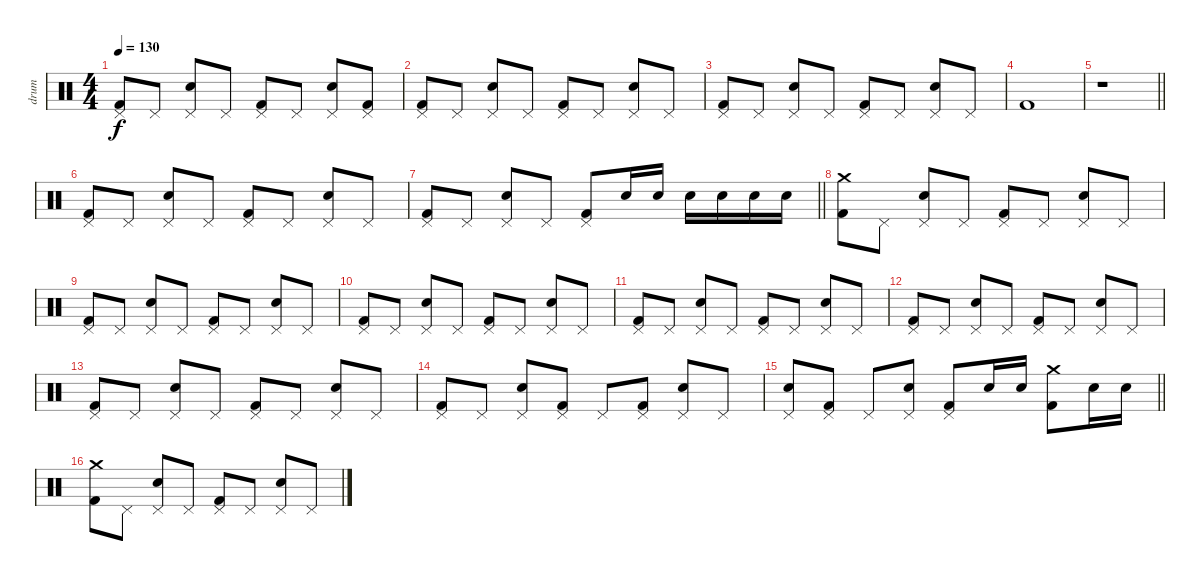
\track ("drum" "drum") {instrument percussion}
\staff {score}
\articulation defaults
\ts (4 4)
\tempo 130
\clef neutral
\ks c
("Pedal Hi-Hat (hit)" "Kick (hit) 2").8{dy f} "Pedal Hi-Hat (hit)".8 ("Pedal Hi-Hat (hit)" "Electric Snare (hit)").8 "Pedal Hi-Hat (hit)".8 ("Pedal Hi-Hat (hit)" "Kick (hit) 2").8 "Pedal Hi-Hat (hit)".8 ("Pedal Hi-Hat (hit)" "Electric Snare (hit)").8 ("Pedal Hi-Hat (hit)" "Kick (hit) 2").8 |
("Pedal Hi-Hat (hit)" "Kick (hit) 2").8 "Pedal Hi-Hat (hit)".8 ("Pedal Hi-Hat (hit)" "Electric Snare (hit)").8 "Pedal Hi-Hat (hit)".8 ("Pedal Hi-Hat (hit)" "Kick (hit) 2").8 "Pedal Hi-Hat (hit)".8 ("Pedal Hi-Hat (hit)" "Electric Snare (hit)").8 "Pedal Hi-Hat (hit)".8 |
("Pedal Hi-Hat (hit)" "Kick (hit) 2").8 "Pedal Hi-Hat (hit)".8 ("Pedal Hi-Hat (hit)" "Electric Snare (hit)").8 "Pedal Hi-Hat (hit)".8 ("Pedal Hi-Hat (hit)" "Kick (hit) 2").8 "Pedal Hi-Hat (hit)".8 ("Pedal Hi-Hat (hit)" "Electric Snare (hit)").8 "Pedal Hi-Hat (hit)".8 |
"Kick (hit) 2".1 |
\barLineRight lightlight
r.1 |
("Pedal Hi-Hat (hit)" "Kick (hit) 2").8 "Pedal Hi-Hat (hit)".8 ("Pedal Hi-Hat (hit)" "Electric Snare (hit)").8 "Pedal Hi-Hat (hit)".8 ("Pedal Hi-Hat (hit)" "Kick (hit) 2").8 "Pedal Hi-Hat (hit)".8 ("Pedal Hi-Hat (hit)" "Electric Snare (hit)").8 "Pedal Hi-Hat (hit)".8 |
\barLineRight lightlight
("Pedal Hi-Hat (hit)" "Kick (hit) 2").8 "Pedal Hi-Hat (hit)".8 ("Pedal Hi-Hat (hit)" "Electric Snare (hit)").8 "Pedal Hi-Hat (hit)".8 ("Pedal Hi-Hat (hit)" "Kick (hit) 2").8 "Electric Snare (hit)".16 "Electric Snare (hit)".16 "Electric Snare (hit)".16 "Electric Snare (hit)".16 "Electric Snare (hit)".16 "Electric Snare (hit)".16 |
("Crash medium (hit)" "Kick (hit) 2").8 "Pedal Hi-Hat (hit)".8 ("Pedal Hi-Hat (hit)" "Electric Snare (hit)").8 "Pedal Hi-Hat (hit)".8 ("Pedal Hi-Hat (hit)" "Kick (hit) 2").8 "Pedal Hi-Hat (hit)".8 ("Pedal Hi-Hat (hit)" "Electric Snare (hit)").8 "Pedal Hi-Hat (hit)".8 |
("Pedal Hi-Hat (hit)" "Kick (hit) 2").8 "Pedal Hi-Hat (hit)".8 ("Pedal Hi-Hat (hit)" "Electric Snare (hit)").8 "Pedal Hi-Hat (hit)".8 ("Pedal Hi-Hat (hit)" "Kick (hit) 2").8 "Pedal Hi-Hat (hit)".8 ("Pedal Hi-Hat (hit)" "Electric Snare (hit)").8 "Pedal Hi-Hat (hit)".8 |
("Pedal Hi-Hat (hit)" "Kick (hit) 2").8 "Pedal Hi-Hat (hit)".8 ("Pedal Hi-Hat (hit)" "Electric Snare (hit)").8 "Pedal Hi-Hat (hit)".8 ("Pedal Hi-Hat (hit)" "Kick (hit) 2").8 "Pedal Hi-Hat (hit)".8 ("Pedal Hi-Hat (hit)" "Electric Snare (hit)").8 "Pedal Hi-Hat (hit)".8 |
("Pedal Hi-Hat (hit)" "Kick (hit) 2").8 "Pedal Hi-Hat (hit)".8 ("Pedal Hi-Hat (hit)" "Electric Snare (hit)").8 "Pedal Hi-Hat (hit)".8 ("Pedal Hi-Hat (hit)" "Kick (hit) 2").8 "Pedal Hi-Hat (hit)".8 ("Pedal Hi-Hat (hit)" "Electric Snare (hit)").8 "Pedal Hi-Hat (hit)".8 |
("Pedal Hi-Hat (hit)" "Kick (hit) 2").8 "Pedal Hi-Hat (hit)".8 ("Pedal Hi-Hat (hit)" "Electric Snare (hit)").8 "Pedal Hi-Hat (hit)".8 ("Pedal Hi-Hat (hit)" "Kick (hit) 2").8 "Pedal Hi-Hat (hit)".8 ("Pedal Hi-Hat (hit)" "Electric Snare (hit)").8 "Pedal Hi-Hat (hit)".8 |
("Pedal Hi-Hat (hit)" "Kick (hit) 2").8 "Pedal Hi-Hat (hit)".8 ("Pedal Hi-Hat (hit)" "Electric Snare (hit)").8 "Pedal Hi-Hat (hit)".8 ("Pedal Hi-Hat (hit)" "Kick (hit) 2").8 "Pedal Hi-Hat (hit)".8 ("Pedal Hi-Hat (hit)" "Electric Snare (hit)").8 "Pedal Hi-Hat (hit)".8 |
("Pedal Hi-Hat (hit)" "Kick (hit) 2").8 "Pedal Hi-Hat (hit)".8 ("Pedal Hi-Hat (hit)" "Electric Snare (hit)").8 ("Pedal Hi-Hat (hit)" "Kick (hit) 2").8 "Pedal Hi-Hat (hit)".8 ("Pedal Hi-Hat (hit)" "Kick (hit) 2").8 ("Pedal Hi-Hat (hit)" "Electric Snare (hit)").8 "Pedal Hi-Hat (hit)".8 |
\barLineRight lightlight
("Pedal Hi-Hat (hit)" "Electric Snare (hit)").8 ("Pedal Hi-Hat (hit)" "Kick (hit) 2").8 "Pedal Hi-Hat (hit)".8 ("Pedal Hi-Hat (hit)" "Electric Snare (hit)").8 ("Pedal Hi-Hat (hit)" "Kick (hit) 2").8 "Electric Snare (hit)".16 "Electric Snare (hit)".16 ("Crash medium (hit)" "Kick (hit) 2").8 "Electric Snare (hit)".16 "Electric Snare (hit)".16 |
("Crash medium (hit)" "Kick (hit) 2").8 "Pedal Hi-Hat (hit)".8 ("Pedal Hi-Hat (hit)" "Electric Snare (hit)").8 "Pedal Hi-Hat (hit)".8 ("Pedal Hi-Hat (hit)" "Kick (hit) 2").8 "Pedal Hi-Hat (hit)".8 ("Pedal Hi-Hat (hit)" "Electric Snare (hit)").8 "Pedal Hi-Hat (hit)".8
